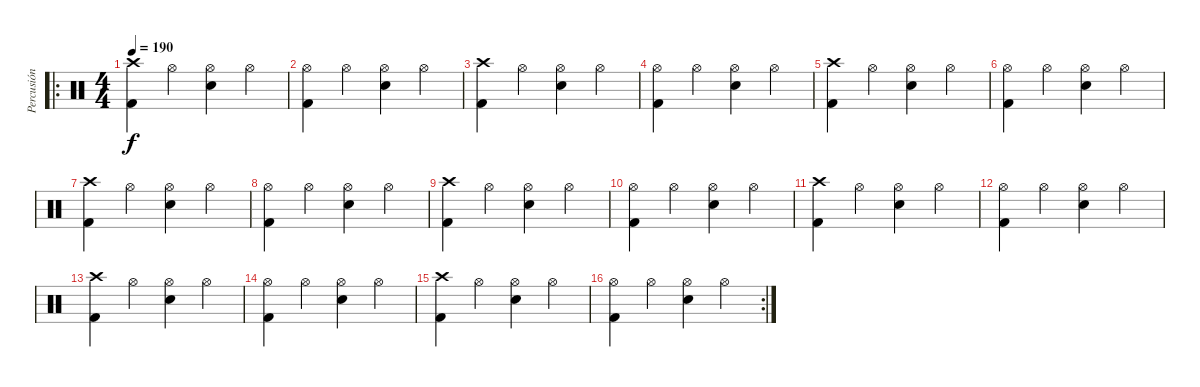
\track ("Percusión" "Percusión") {instrument percussion}
\staff {score}
\articulation defaults
\ro
\ts (4 4)
\tempo 190
\clef neutral
\ks c
("Kick (hit) 2" "Crash high (hit)").4{dy f} "Hi-Hat (open)".4 ("Snare (hit) 2" "Hi-Hat (open)").4 "Hi-Hat (open)".4 |
("Kick (hit) 2" "Hi-Hat (open)").4 "Hi-Hat (open)".4 ("Snare (hit) 2" "Hi-Hat (open)").4 "Hi-Hat (open)".4 |
("Kick (hit) 2" "Crash high (hit)").4 "Hi-Hat (open)".4 ("Snare (hit) 2" "Hi-Hat (open)").4 "Hi-Hat (open)".4 |
("Kick (hit) 2" "Hi-Hat (open)").4 "Hi-Hat (open)".4 ("Snare (hit) 2" "Hi-Hat (open)").4 "Hi-Hat (open)".4 |
("Kick (hit) 2" "Crash high (hit)").4 "Hi-Hat (open)".4 ("Snare (hit) 2" "Hi-Hat (open)").4 "Hi-Hat (open)".4 |
("Kick (hit) 2" "Hi-Hat (open)").4 "Hi-Hat (open)".4 ("Snare (hit) 2" "Hi-Hat (open)").4 "Hi-Hat (open)".4 |
("Kick (hit) 2" "Crash high (hit)").4 "Hi-Hat (open)".4 ("Snare (hit) 2" "Hi-Hat (open)").4 "Hi-Hat (open)".4 |
("Kick (hit) 2" "Hi-Hat (open)").4 "Hi-Hat (open)".4 ("Snare (hit) 2" "Hi-Hat (open)").4 "Hi-Hat (open)".4 |
("Kick (hit) 2" "Crash high (hit)").4 "Hi-Hat (open)".4 ("Snare (hit) 2" "Hi-Hat (open)").4 "Hi-Hat (open)".4 |
("Kick (hit) 2" "Hi-Hat (open)").4 "Hi-Hat (open)".4 ("Snare (hit) 2" "Hi-Hat (open)").4 "Hi-Hat (open)".4 |
("Kick (hit) 2" "Crash high (hit)").4 "Hi-Hat (open)".4 ("Snare (hit) 2" "Hi-Hat (open)").4 "Hi-Hat (open)".4 |
("Kick (hit) 2" "Hi-Hat (open)").4 "Hi-Hat (open)".4 ("Snare (hit) 2" "Hi-Hat (open)").4 "Hi-Hat (open)".4 |
("Kick (hit) 2" "Crash high (hit)").4 "Hi-Hat (open)".4 ("Snare (hit) 2" "Hi-Hat (open)").4 "Hi-Hat (open)".4 |
("Kick (hit) 2" "Hi-Hat (open)").4 "Hi-Hat (open)".4 ("Snare (hit) 2" "Hi-Hat (open)").4 "Hi-Hat (open)".4 |
("Kick (hit) 2" "Crash high (hit)").4 "Hi-Hat (open)".4 ("Snare (hit) 2" "Hi-Hat (open)").4 "Hi-Hat (open)".4 |
\rc 2
("Kick (hit) 2" "Hi-Hat (open)").4 "Hi-Hat (open)".4 ("Snare (hit) 2" "Hi-Hat (open)").4 "Hi-Hat (open)".4
